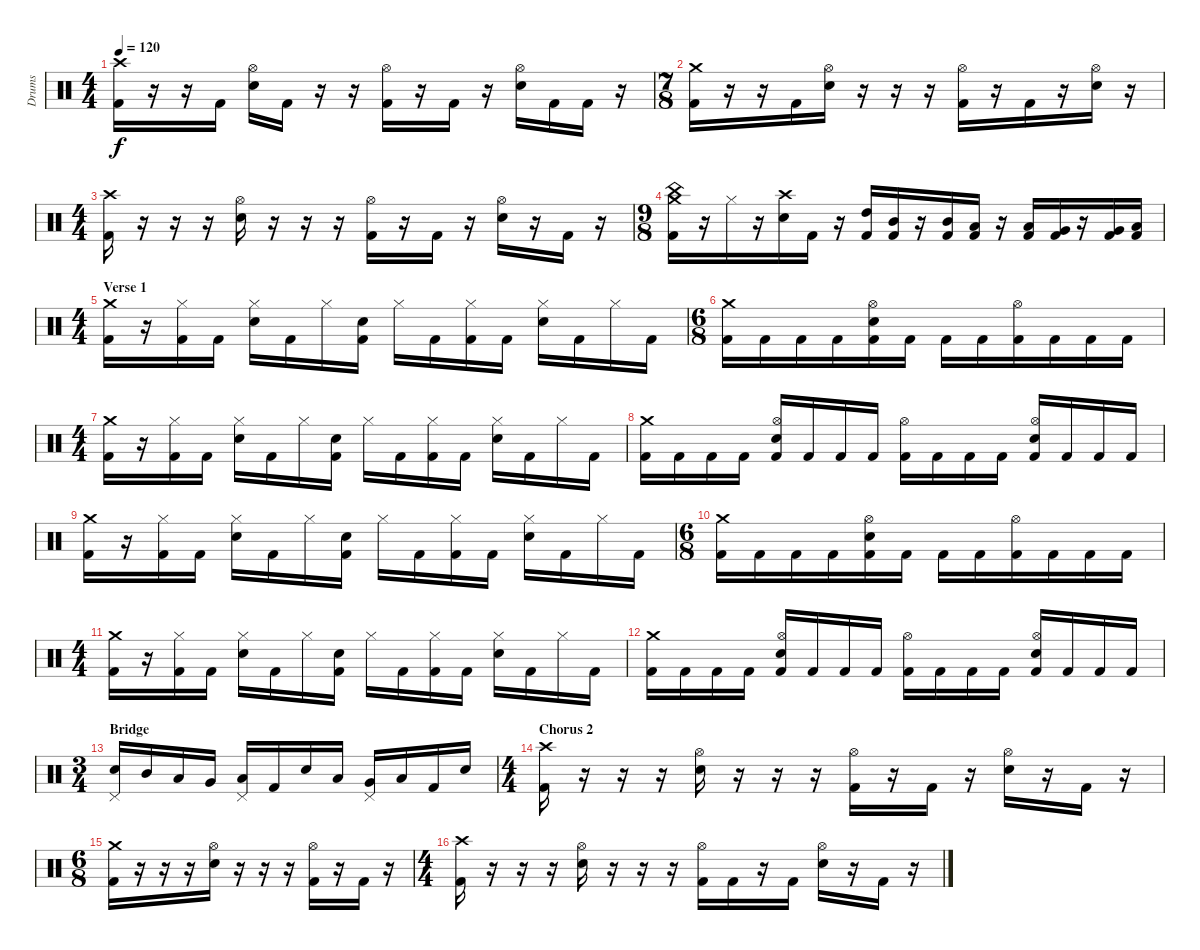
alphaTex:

\track ("Drums" "Drums") {instrument percussion}
\staff {score}
\articulation defaults
\ts (4 4)
\tempo 120
\clef neutral
\ks c
("Crash high (hit)" "Kick (hit) 2").16{dy f} r.16 r.16 "Kick (hit) 2".16 ("Hi-Hat (open)" "Electric Snare (hit)").16 "Kick (hit) 2".16 r.16 r.16 ("Hi-Hat (open)" "Kick (hit) 2").16 r.16 "Kick (hit) 2".16 r.16 ("Hi-Hat (open)" "Electric Snare (hit)").16 "Kick (hit) 2".16 "Kick (hit) 2".16 r.16 |
\ts (7 8)
("Crash medium (hit)" "Kick (hit) 2").16 r.16 r.16 "Kick (hit) 2".16 ("Hi-Hat (open)" "Electric Snare (hit)").16 r.16 r.16 r.16 ("Hi-Hat (open)" "Kick (hit) 2").16 r.16 "Kick (hit) 2".16 r.16 ("Hi-Hat (open)" "Electric Snare (hit)").16 r.16 |
\ts (4 4)
("Crash high (hit)" "Kick (hit) 2").16 r.16 r.16 r.16 ("Hi-Hat (open)" "Electric Snare (hit)").16 r.16 r.16 r.16 ("Hi-Hat (open)" "Kick (hit) 2").16 r.16 "Kick (hit) 2".16 r.16 ("Hi-Hat (open)" "Electric Snare (hit)").16 r.16 "Kick (hit) 2".16 r.16 |
\ts (9 8)
("China (hit)" "Crash medium (hit)" "Kick (hit) 2").16 r.16 "Hi-Hat (closed)".16 r.16 ("Crash high (hit)" "Electric Snare (hit)").16 "Kick (hit) 2".16 r.16 ("High Tom (hit)" "Kick (hit) 2").16 ("Mid Tom (hit)" "Kick (hit) 2").16 r.16 ("Mid Tom (hit)" "Kick (hit) 2").16 ("Low Tom (hit)" "Kick (hit) 2").16 r.16 ("Low Tom (hit)" "Kick (hit) 2").16 ("Very Low Tom (hit)" "Kick (hit) 2").16 r.16 ("Very Low Tom (hit)" "Kick (hit) 2").16 ("Low Floor Tom (hit)" "Kick (hit) 2").16 |
\ts (4 4)
\section ("" "Verse 1")
("Crash medium (hit)" "Kick (hit) 2").16 r.16 ("Hi-Hat (closed)" "Kick (hit) 2").16 "Kick (hit) 2".16 ("Hi-Hat (closed)" "Electric Snare (hit)").16 "Kick (hit) 2".16 "Hi-Hat (closed)".16 ("Electric Snare (hit)" "Kick (hit) 2").16 "Hi-Hat (closed)".16 "Kick (hit) 2".16 ("Hi-Hat (closed)" "Kick (hit) 2").16 "Kick (hit) 2".16 ("Hi-Hat (closed)" "Electric Snare (hit)").16 "Kick (hit) 2".16 "Hi-Hat (closed)".16 "Kick (hit) 2".16 |
\ts (6 8)
("Crash medium (hit)" "Kick (hit) 2").16 "Kick (hit) 2".16 "Kick (hit) 2".16 "Kick (hit) 2".16 ("Hi-Hat (open)" "Electric Snare (hit)" "Kick (hit) 2").16 "Kick (hit) 2".16 "Kick (hit) 2".16 "Kick (hit) 2".16 ("Hi-Hat (open)" "Kick (hit) 2").16 "Kick (hit) 2".16 "Kick (hit) 2".16 "Kick (hit) 2".16 |
\ts (4 4)
("Crash medium (hit)" "Kick (hit) 2").16 r.16 ("Hi-Hat (closed)" "Kick (hit) 2").16 "Kick (hit) 2".16 ("Hi-Hat (closed)" "Electric Snare (hit)").16 "Kick (hit) 2".16 "Hi-Hat (closed)".16 ("Electric Snare (hit)" "Kick (hit) 2").16 "Hi-Hat (closed)".16 "Kick (hit) 2".16 ("Hi-Hat (closed)" "Kick (hit) 2").16 "Kick (hit) 2".16 ("Hi-Hat (closed)" "Electric Snare (hit)").16 "Kick (hit) 2".16 "Hi-Hat (closed)".16 "Kick (hit) 2".16 |
("Crash medium (hit)" "Kick (hit) 2").16 "Kick (hit) 2".16 "Kick (hit) 2".16 "Kick (hit) 2".16 ("Hi-Hat (open)" "Electric Snare (hit)" "Kick (hit) 2").16 "Kick (hit) 2".16 "Kick (hit) 2".16 "Kick (hit) 2".16 ("Hi-Hat (open)" "Kick (hit) 2").16 "Kick (hit) 2".16 "Kick (hit) 2".16 "Kick (hit) 2".16 ("Hi-Hat (open)" "Electric Snare (hit)" "Kick (hit) 2").16 "Kick (hit) 2".16 "Kick (hit) 2".16 "Kick (hit) 2".16 |
("Crash medium (hit)" "Kick (hit) 2").16 r.16 ("Hi-Hat (closed)" "Kick (hit) 2").16 "Kick (hit) 2".16 ("Hi-Hat (closed)" "Electric Snare (hit)").16 "Kick (hit) 2".16 "Hi-Hat (closed)".16 ("Electric Snare (hit)" "Kick (hit) 2").16 "Hi-Hat (closed)".16 "Kick (hit) 2".16 ("Hi-Hat (closed)" "Kick (hit) 2").16 "Kick (hit) 2".16 ("Hi-Hat (closed)" "Electric Snare (hit)").16 "Kick (hit) 2".16 "Hi-Hat (closed)".16 "Kick (hit) 2".16 |
\ts (6 8)
("Crash medium (hit)" "Kick (hit) 2").16 "Kick (hit) 2".16 "Kick (hit) 2".16 "Kick (hit) 2".16 ("Hi-Hat (open)" "Electric Snare (hit)" "Kick (hit) 2").16 "Kick (hit) 2".16 "Kick (hit) 2".16 "Kick (hit) 2".16 ("Hi-Hat (open)" "Kick (hit) 2").16 "Kick (hit) 2".16 "Kick (hit) 2".16 "Kick (hit) 2".16 |
\ts (4 4)
("Crash medium (hit)" "Kick (hit) 2").16 r.16 ("Hi-Hat (closed)" "Kick (hit) 2").16 "Kick (hit) 2".16 ("Hi-Hat (closed)" "Electric Snare (hit)").16 "Kick (hit) 2".16 "Hi-Hat (closed)".16 ("Electric Snare (hit)" "Kick (hit) 2").16 "Hi-Hat (closed)".16 "Kick (hit) 2".16 ("Hi-Hat (closed)" "Kick (hit) 2").16 "Kick (hit) 2".16 ("Hi-Hat (closed)" "Electric Snare (hit)").16 "Kick (hit) 2".16 "Hi-Hat (closed)".16 "Kick (hit) 2".16 |
("Crash medium (hit)" "Kick (hit) 2").16 "Kick (hit) 2".16 "Kick (hit) 2".16 "Kick (hit) 2".16 ("Hi-Hat (open)" "Electric Snare (hit)" "Kick (hit) 2").16 "Kick (hit) 2".16 "Kick (hit) 2".16 "Kick (hit) 2".16 ("Hi-Hat (open)" "Kick (hit) 2").16 "Kick (hit) 2".16 "Kick (hit) 2".16 "Kick (hit) 2".16 ("Hi-Hat (open)" "Electric Snare (hit)" "Kick (hit) 2").16 "Kick (hit) 2".16 "Kick (hit) 2".16 "Kick (hit) 2".16 |
\ts (3 4)
\section ("" "Bridge")
("Pedal Hi-Hat (hit)" "Electric Snare (hit)").16 "Mid Tom (hit)".16 "Low Tom (hit)".16 "Very Low Tom (hit)".16 ("Pedal Hi-Hat (hit)" "Low Floor Tom (hit)").16 "Kick (hit) 2".16 "Electric Snare (hit)".16 "Low Tom (hit)".16 ("Pedal Hi-Hat (hit)" "Very Low Tom (hit)").16 "Low Floor Tom (hit)".16 "Kick (hit) 2".16 "Electric Snare (hit)".16 |
\ts (4 4)
\section ("" "Chorus 2")
("Crash high (hit)" "Kick (hit) 2").16 r.16 r.16 r.16 ("Hi-Hat (open)" "Electric Snare (hit)").16 r.16 r.16 r.16 ("Hi-Hat (open)" "Kick (hit) 2").16 r.16 "Kick (hit) 2".16 r.16 ("Hi-Hat (open)" "Electric Snare (hit)").16 r.16 "Kick (hit) 2".16 r.16 |
\ts (6 8)
("Crash medium (hit)" "Kick (hit) 2").16 r.16 r.16 r.16 ("Hi-Hat (open)" "Electric Snare (hit)").16 r.16 r.16 r.16 ("Hi-Hat (open)" "Kick (hit) 2").16 r.16 "Kick (hit) 2".16 r.16 |
\ts (4 4)
("Crash high (hit)" "Kick (hit) 2").16 r.16 r.16 r.16 ("Hi-Hat (open)" "Electric Snare (hit)").16 r.16 r.16 r.16 ("Hi-Hat (open)" "Kick (hit) 2").16 "Kick (hit) 2".16 r.16 "Kick (hit) 2".16 ("Hi-Hat (open)" "Electric Snare (hit)").16 r.16 "Kick (hit) 2".16 r.16
